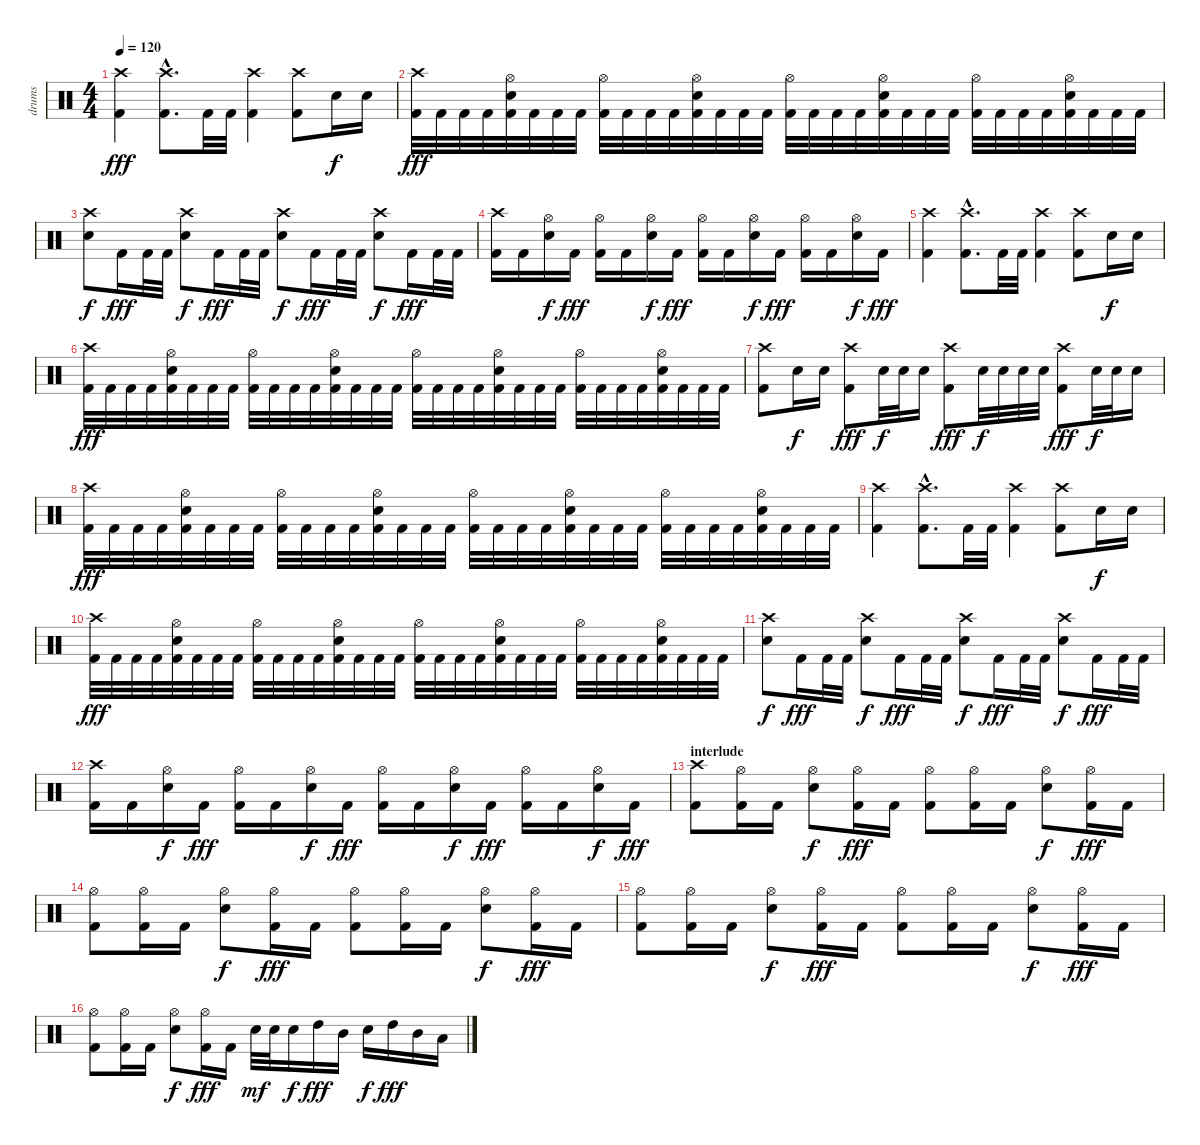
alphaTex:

\track ("drums" "drums") {instrument percussion}
\staff {score}
\articulation defaults
\ts (4 4)
\tempo 120
\clef neutral
\ks c
("Crash high (hit)" "Kick (hit) 2").4{dy fff} ("Crash high (hit)"{hac} "Kick (hit) 2"{hac}).8{d} "Kick (hit) 2".32 "Kick (hit) 2".32 ("Crash high (hit)" "Kick (hit) 2").4 ("Crash high (hit)" "Kick (hit) 2").8 "Snare (hit) 2".16{dy f} "Snare (hit) 2".16 |
("Crash high (hit)" "Kick (hit) 2").32{dy fff} "Kick (hit) 2".32 "Kick (hit) 2".32 "Kick (hit) 2".32 ("Hi-Hat (open)" "Snare (hit) 2" "Kick (hit) 2").32 "Kick (hit) 2".32 "Kick (hit) 2".32 "Kick (hit) 2".32 ("Hi-Hat (open)" "Kick (hit) 2").32 "Kick (hit) 2".32 "Kick (hit) 2".32 "Kick (hit) 2".32 ("Hi-Hat (open)" "Snare (hit) 2" "Kick (hit) 2").32 "Kick (hit) 2".32 "Kick (hit) 2".32 "Kick (hit) 2".32 ("Hi-Hat (open)" "Kick (hit) 2").32 "Kick (hit) 2".32 "Kick (hit) 2".32 "Kick (hit) 2".32 ("Hi-Hat (open)" "Snare (hit) 2" "Kick (hit) 2").32 "Kick (hit) 2".32 "Kick (hit) 2".32 "Kick (hit) 2".32 ("Hi-Hat (open)" "Kick (hit) 2").32 "Kick (hit) 2".32 "Kick (hit) 2".32 "Kick (hit) 2".32 ("Hi-Hat (open)" "Snare (hit) 2" "Kick (hit) 2").32 "Kick (hit) 2".32 "Kick (hit) 2".32 "Kick (hit) 2".32 |
("Crash high (hit)" "Snare (hit) 2").8{dy f} "Kick (hit) 2".16{dy fff} "Kick (hit) 2".32 "Kick (hit) 2".32 ("Crash high (hit)" "Snare (hit) 2").8{dy f} "Kick (hit) 2".16{dy fff} "Kick (hit) 2".32 "Kick (hit) 2".32 ("Crash high (hit)" "Snare (hit) 2").8{dy f} "Kick (hit) 2".16{dy fff} "Kick (hit) 2".32 "Kick (hit) 2".32 ("Crash high (hit)" "Snare (hit) 2").8{dy f} "Kick (hit) 2".16{dy fff} "Kick (hit) 2".32 "Kick (hit) 2".32 |
("Crash high (hit)" "Kick (hit) 2").16 "Kick (hit) 2".16 ("Hi-Hat (open)" "Snare (hit) 2").16{dy f} "Kick (hit) 2".16{dy fff} ("Hi-Hat (open)" "Kick (hit) 2").16 "Kick (hit) 2".16 ("Hi-Hat (open)" "Snare (hit) 2").16{dy f} "Kick (hit) 2".16{dy fff} ("Hi-Hat (open)" "Kick (hit) 2").16 "Kick (hit) 2".16 ("Hi-Hat (open)" "Snare (hit) 2").16{dy f} "Kick (hit) 2".16{dy fff} ("Hi-Hat (open)" "Kick (hit) 2").16 "Kick (hit) 2".16 ("Hi-Hat (open)" "Snare (hit) 2").16{dy f} "Kick (hit) 2".16{dy fff} |
("Crash high (hit)" "Kick (hit) 2").4 ("Crash high (hit)"{hac} "Kick (hit) 2"{hac}).8{d} "Kick (hit) 2".32 "Kick (hit) 2".32 ("Crash high (hit)" "Kick (hit) 2").4 ("Crash high (hit)" "Kick (hit) 2").8 "Snare (hit) 2".16{dy f} "Snare (hit) 2".16 |
("Crash high (hit)" "Kick (hit) 2").32{dy fff} "Kick (hit) 2".32 "Kick (hit) 2".32 "Kick (hit) 2".32 ("Hi-Hat (open)" "Snare (hit) 2" "Kick (hit) 2").32 "Kick (hit) 2".32 "Kick (hit) 2".32 "Kick (hit) 2".32 ("Hi-Hat (open)" "Kick (hit) 2").32 "Kick (hit) 2".32 "Kick (hit) 2".32 "Kick (hit) 2".32 ("Hi-Hat (open)" "Snare (hit) 2" "Kick (hit) 2").32 "Kick (hit) 2".32 "Kick (hit) 2".32 "Kick (hit) 2".32 ("Hi-Hat (open)" "Kick (hit) 2").32 "Kick (hit) 2".32 "Kick (hit) 2".32 "Kick (hit) 2".32 ("Hi-Hat (open)" "Snare (hit) 2" "Kick (hit) 2").32 "Kick (hit) 2".32 "Kick (hit) 2".32 "Kick (hit) 2".32 ("Hi-Hat (open)" "Kick (hit) 2").32 "Kick (hit) 2".32 "Kick (hit) 2".32 "Kick (hit) 2".32 ("Hi-Hat (open)" "Snare (hit) 2" "Kick (hit) 2").32 "Kick (hit) 2".32 "Kick (hit) 2".32 "Kick (hit) 2".32 |
("Crash high (hit)" "Kick (hit) 2").8 "Snare (hit) 2".16{dy f} "Snare (hit) 2".16 ("Crash high (hit)" "Kick (hit) 2").8{dy fff} "Snare (hit) 2".32{dy f} "Snare (hit) 2".32 "Snare (hit) 2".16 ("Crash high (hit)" "Kick (hit) 2").8{dy fff} "Snare (hit) 2".32{dy f} "Snare (hit) 2".32 "Snare (hit) 2".32 "Snare (hit) 2".32 ("Crash high (hit)" "Kick (hit) 2").8{dy fff} "Snare (hit) 2".32{dy f} "Snare (hit) 2".32 "Snare (hit) 2".16 |
("Crash high (hit)" "Kick (hit) 2").32{dy fff} "Kick (hit) 2".32 "Kick (hit) 2".32 "Kick (hit) 2".32 ("Hi-Hat (open)" "Snare (hit) 2" "Kick (hit) 2").32 "Kick (hit) 2".32 "Kick (hit) 2".32 "Kick (hit) 2".32 ("Hi-Hat (open)" "Kick (hit) 2").32 "Kick (hit) 2".32 "Kick (hit) 2".32 "Kick (hit) 2".32 ("Hi-Hat (open)" "Snare (hit) 2" "Kick (hit) 2").32 "Kick (hit) 2".32 "Kick (hit) 2".32 "Kick (hit) 2".32 ("Hi-Hat (open)" "Kick (hit) 2").32 "Kick (hit) 2".32 "Kick (hit) 2".32 "Kick (hit) 2".32 ("Hi-Hat (open)" "Snare (hit) 2" "Kick (hit) 2").32 "Kick (hit) 2".32 "Kick (hit) 2".32 "Kick (hit) 2".32 ("Hi-Hat (open)" "Kick (hit) 2").32 "Kick (hit) 2".32 "Kick (hit) 2".32 "Kick (hit) 2".32 ("Hi-Hat (open)" "Snare (hit) 2" "Kick (hit) 2").32 "Kick (hit) 2".32 "Kick (hit) 2".32 "Kick (hit) 2".32 |
("Crash high (hit)" "Kick (hit) 2").4 ("Crash high (hit)"{hac} "Kick (hit) 2"{hac}).8{d} "Kick (hit) 2".32 "Kick (hit) 2".32 ("Crash high (hit)" "Kick (hit) 2").4 ("Crash high (hit)" "Kick (hit) 2").8 "Snare (hit) 2".16{dy f} "Snare (hit) 2".16 |
("Crash high (hit)" "Kick (hit) 2").32{dy fff} "Kick (hit) 2".32 "Kick (hit) 2".32 "Kick (hit) 2".32 ("Hi-Hat (open)" "Snare (hit) 2" "Kick (hit) 2").32 "Kick (hit) 2".32 "Kick (hit) 2".32 "Kick (hit) 2".32 ("Hi-Hat (open)" "Kick (hit) 2").32 "Kick (hit) 2".32 "Kick (hit) 2".32 "Kick (hit) 2".32 ("Hi-Hat (open)" "Snare (hit) 2" "Kick (hit) 2").32 "Kick (hit) 2".32 "Kick (hit) 2".32 "Kick (hit) 2".32 ("Hi-Hat (open)" "Kick (hit) 2").32 "Kick (hit) 2".32 "Kick (hit) 2".32 "Kick (hit) 2".32 ("Hi-Hat (open)" "Snare (hit) 2" "Kick (hit) 2").32 "Kick (hit) 2".32 "Kick (hit) 2".32 "Kick (hit) 2".32 ("Hi-Hat (open)" "Kick (hit) 2").32 "Kick (hit) 2".32 "Kick (hit) 2".32 "Kick (hit) 2".32 ("Hi-Hat (open)" "Snare (hit) 2" "Kick (hit) 2").32 "Kick (hit) 2".32 "Kick (hit) 2".32 "Kick (hit) 2".32 |
("Crash high (hit)" "Snare (hit) 2").8{dy f} "Kick (hit) 2".16{dy fff} "Kick (hit) 2".32 "Kick (hit) 2".32 ("Crash high (hit)" "Snare (hit) 2").8{dy f} "Kick (hit) 2".16{dy fff} "Kick (hit) 2".32 "Kick (hit) 2".32 ("Crash high (hit)" "Snare (hit) 2").8{dy f} "Kick (hit) 2".16{dy fff} "Kick (hit) 2".32 "Kick (hit) 2".32 ("Crash high (hit)" "Snare (hit) 2").8{dy f} "Kick (hit) 2".16{dy fff} "Kick (hit) 2".32 "Kick (hit) 2".32 |
("Crash high (hit)" "Kick (hit) 2").16 "Kick (hit) 2".16 ("Hi-Hat (open)" "Snare (hit) 2").16{dy f} "Kick (hit) 2".16{dy fff} ("Hi-Hat (open)" "Kick (hit) 2").16 "Kick (hit) 2".16 ("Hi-Hat (open)" "Snare (hit) 2").16{dy f} "Kick (hit) 2".16{dy fff} ("Hi-Hat (open)" "Kick (hit) 2").16 "Kick (hit) 2".16 ("Hi-Hat (open)" "Snare (hit) 2").16{dy f} "Kick (hit) 2".16{dy fff} ("Hi-Hat (open)" "Kick (hit) 2").16 "Kick (hit) 2".16 ("Hi-Hat (open)" "Snare (hit) 2").16{dy f} "Kick (hit) 2".16{dy fff} |
\section ("" "interlude")
("Crash high (hit)" "Kick (hit) 2").8 ("Hi-Hat (open)" "Kick (hit) 2").16 "Kick (hit) 2".16 ("Hi-Hat (open)" "Snare (hit) 2").8{dy f} ("Hi-Hat (open)" "Kick (hit) 2").16{dy fff} "Kick (hit) 2".16 ("Hi-Hat (open)" "Kick (hit) 2").8 ("Hi-Hat (open)" "Kick (hit) 2").16 "Kick (hit) 2".16 ("Hi-Hat (open)" "Snare (hit) 2").8{dy f} ("Hi-Hat (open)" "Kick (hit) 2").16{dy fff} "Kick (hit) 2".16 |
("Hi-Hat (open)" "Kick (hit) 2").8 ("Hi-Hat (open)" "Kick (hit) 2").16 "Kick (hit) 2".16 ("Hi-Hat (open)" "Snare (hit) 2").8{dy f} ("Hi-Hat (open)" "Kick (hit) 2").16{dy fff} "Kick (hit) 2".16 ("Hi-Hat (open)" "Kick (hit) 2").8 ("Hi-Hat (open)" "Kick (hit) 2").16 "Kick (hit) 2".16 ("Hi-Hat (open)" "Snare (hit) 2").8{dy f} ("Hi-Hat (open)" "Kick (hit) 2").16{dy fff} "Kick (hit) 2".16 |
("Hi-Hat (open)" "Kick (hit) 2").8 ("Hi-Hat (open)" "Kick (hit) 2").16 "Kick (hit) 2".16 ("Hi-Hat (open)" "Snare (hit) 2").8{dy f} ("Hi-Hat (open)" "Kick (hit) 2").16{dy fff} "Kick (hit) 2".16 ("Hi-Hat (open)" "Kick (hit) 2").8 ("Hi-Hat (open)" "Kick (hit) 2").16 "Kick (hit) 2".16 ("Hi-Hat (open)" "Snare (hit) 2").8{dy f} ("Hi-Hat (open)" "Kick (hit) 2").16{dy fff} "Kick (hit) 2".16 |
("Hi-Hat (open)" "Kick (hit) 2").8 ("Hi-Hat (open)" "Kick (hit) 2").16 "Kick (hit) 2".16 ("Hi-Hat (open)" "Snare (hit) 2").8{dy f} ("Hi-Hat (open)" "Kick (hit) 2").16{dy fff} "Kick (hit) 2".16 "Snare (hit) 2".32{dy mf} "Snare (hit) 2".32 "Snare (hit) 2".16{dy f} "High Tom (hit)".16{dy fff} "Mid Tom (hit)".16 "Snare (hit) 2".16{dy f} "High Tom (hit)".16{dy fff} "Mid Tom (hit)".16 "Low Tom (hit)".16
